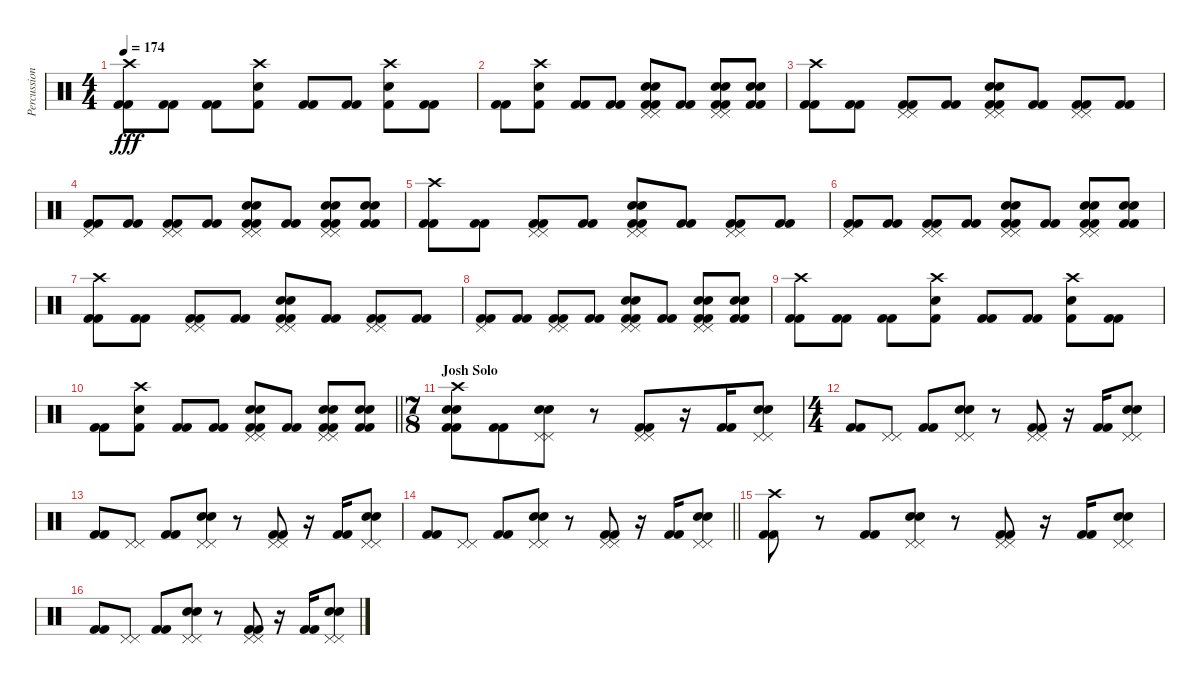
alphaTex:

\track ("Percussion" "Percussion") {instrument percussion}
\staff {score}
\articulation defaults
\ts (4 4)
\tempo 174
\clef neutral
\ks c
("Crash high (hit)" "Kick (hit) 2" "Kick (hit) 2").8{dy fff} ("Kick (hit) 2" "Kick (hit) 2").8 ("Kick (hit) 2" "Kick (hit) 2").8 ("Crash high (hit)" "Electric Snare (hit)" "Kick (hit) 2").8 ("Kick (hit) 2" "Kick (hit) 2").8 ("Kick (hit) 2" "Kick (hit) 2").8 ("Crash high (hit)" "Electric Snare (hit)" "Kick (hit) 2").8 ("Kick (hit) 2" "Kick (hit) 2").8 |
("Kick (hit) 2" "Kick (hit) 2").8 ("Crash high (hit)" "Electric Snare (hit)" "Kick (hit) 2").8 ("Kick (hit) 2" "Kick (hit) 2").8 ("Kick (hit) 2" "Kick (hit) 2").8 ("Pedal Hi-Hat (hit)" "Pedal Hi-Hat (hit)" "Electric Snare (hit)" "Electric Snare (hit)" "Kick (hit) 2" "Kick (hit) 2").8 ("Kick (hit) 2" "Kick (hit) 2").8 ("Pedal Hi-Hat (hit)" "Pedal Hi-Hat (hit)" "Electric Snare (hit)" "Electric Snare (hit)" "Kick (hit) 2" "Kick (hit) 2").8 ("Electric Snare (hit)" "Electric Snare (hit)" "Kick (hit) 2" "Kick (hit) 2").8 |
("Crash high (hit)" "Kick (hit) 2" "Kick (hit) 2").8 ("Kick (hit) 2" "Kick (hit) 2").8 ("Pedal Hi-Hat (hit)" "Pedal Hi-Hat (hit)" "Kick (hit) 2" "Kick (hit) 2").8 ("Kick (hit) 2" "Kick (hit) 2").8 ("Pedal Hi-Hat (hit)" "Pedal Hi-Hat (hit)" "Electric Snare (hit)" "Electric Snare (hit)" "Kick (hit) 2" "Kick (hit) 2").8 ("Kick (hit) 2" "Kick (hit) 2").8 ("Pedal Hi-Hat (hit)" "Pedal Hi-Hat (hit)" "Kick (hit) 2" "Kick (hit) 2").8 ("Kick (hit) 2" "Kick (hit) 2").8 |
("Pedal Hi-Hat (hit)" "Kick (hit) 2" "Kick (hit) 2").8 ("Kick (hit) 2" "Kick (hit) 2").8 ("Pedal Hi-Hat (hit)" "Pedal Hi-Hat (hit)" "Kick (hit) 2" "Kick (hit) 2").8 ("Kick (hit) 2" "Kick (hit) 2").8 ("Pedal Hi-Hat (hit)" "Pedal Hi-Hat (hit)" "Electric Snare (hit)" "Electric Snare (hit)" "Kick (hit) 2" "Kick (hit) 2").8 ("Kick (hit) 2" "Kick (hit) 2").8 ("Pedal Hi-Hat (hit)" "Pedal Hi-Hat (hit)" "Electric Snare (hit)" "Electric Snare (hit)" "Kick (hit) 2" "Kick (hit) 2").8 ("Electric Snare (hit)" "Electric Snare (hit)" "Kick (hit) 2" "Kick (hit) 2").8 |
("Crash high (hit)" "Kick (hit) 2" "Kick (hit) 2").8 ("Kick (hit) 2" "Kick (hit) 2").8 ("Pedal Hi-Hat (hit)" "Pedal Hi-Hat (hit)" "Kick (hit) 2" "Kick (hit) 2").8 ("Kick (hit) 2" "Kick (hit) 2").8 ("Pedal Hi-Hat (hit)" "Pedal Hi-Hat (hit)" "Electric Snare (hit)" "Electric Snare (hit)" "Kick (hit) 2" "Kick (hit) 2").8 ("Kick (hit) 2" "Kick (hit) 2").8 ("Pedal Hi-Hat (hit)" "Pedal Hi-Hat (hit)" "Kick (hit) 2" "Kick (hit) 2").8 ("Kick (hit) 2" "Kick (hit) 2").8 |
("Pedal Hi-Hat (hit)" "Kick (hit) 2" "Kick (hit) 2").8 ("Kick (hit) 2" "Kick (hit) 2").8 ("Pedal Hi-Hat (hit)" "Pedal Hi-Hat (hit)" "Kick (hit) 2" "Kick (hit) 2").8 ("Kick (hit) 2" "Kick (hit) 2").8 ("Pedal Hi-Hat (hit)" "Pedal Hi-Hat (hit)" "Electric Snare (hit)" "Electric Snare (hit)" "Kick (hit) 2" "Kick (hit) 2").8 ("Kick (hit) 2" "Kick (hit) 2").8 ("Pedal Hi-Hat (hit)" "Pedal Hi-Hat (hit)" "Electric Snare (hit)" "Electric Snare (hit)" "Kick (hit) 2" "Kick (hit) 2").8 ("Electric Snare (hit)" "Electric Snare (hit)" "Kick (hit) 2" "Kick (hit) 2").8 |
("Crash high (hit)" "Kick (hit) 2" "Kick (hit) 2").8 ("Kick (hit) 2" "Kick (hit) 2").8 ("Pedal Hi-Hat (hit)" "Pedal Hi-Hat (hit)" "Kick (hit) 2" "Kick (hit) 2").8 ("Kick (hit) 2" "Kick (hit) 2").8 ("Pedal Hi-Hat (hit)" "Pedal Hi-Hat (hit)" "Electric Snare (hit)" "Electric Snare (hit)" "Kick (hit) 2" "Kick (hit) 2").8 ("Kick (hit) 2" "Kick (hit) 2").8 ("Pedal Hi-Hat (hit)" "Pedal Hi-Hat (hit)" "Kick (hit) 2" "Kick (hit) 2").8 ("Kick (hit) 2" "Kick (hit) 2").8 |
("Pedal Hi-Hat (hit)" "Kick (hit) 2" "Kick (hit) 2").8 ("Kick (hit) 2" "Kick (hit) 2").8 ("Pedal Hi-Hat (hit)" "Pedal Hi-Hat (hit)" "Kick (hit) 2" "Kick (hit) 2").8 ("Kick (hit) 2" "Kick (hit) 2").8 ("Pedal Hi-Hat (hit)" "Pedal Hi-Hat (hit)" "Electric Snare (hit)" "Electric Snare (hit)" "Kick (hit) 2" "Kick (hit) 2").8 ("Kick (hit) 2" "Kick (hit) 2").8 ("Pedal Hi-Hat (hit)" "Pedal Hi-Hat (hit)" "Electric Snare (hit)" "Electric Snare (hit)" "Kick (hit) 2" "Kick (hit) 2").8 ("Electric Snare (hit)" "Electric Snare (hit)" "Kick (hit) 2" "Kick (hit) 2").8 |
("Crash high (hit)" "Kick (hit) 2" "Kick (hit) 2").8 ("Kick (hit) 2" "Kick (hit) 2").8 ("Kick (hit) 2" "Kick (hit) 2").8 ("Crash high (hit)" "Electric Snare (hit)" "Kick (hit) 2").8 ("Kick (hit) 2" "Kick (hit) 2").8 ("Kick (hit) 2" "Kick (hit) 2").8 ("Crash high (hit)" "Electric Snare (hit)" "Kick (hit) 2").8 ("Kick (hit) 2" "Kick (hit) 2").8 |
\barLineRight lightlight
("Kick (hit) 2" "Kick (hit) 2").8 ("Crash high (hit)" "Electric Snare (hit)" "Kick (hit) 2").8 ("Kick (hit) 2" "Kick (hit) 2").8 ("Kick (hit) 2" "Kick (hit) 2").8 ("Pedal Hi-Hat (hit)" "Pedal Hi-Hat (hit)" "Electric Snare (hit)" "Electric Snare (hit)" "Kick (hit) 2" "Kick (hit) 2").8 ("Kick (hit) 2" "Kick (hit) 2").8 ("Pedal Hi-Hat (hit)" "Pedal Hi-Hat (hit)" "Electric Snare (hit)" "Electric Snare (hit)" "Kick (hit) 2" "Kick (hit) 2").8 ("Electric Snare (hit)" "Electric Snare (hit)" "Kick (hit) 2" "Kick (hit) 2").8 |
\ts (7 8)
\section ("" "Josh Solo")
("Electric Snare (hit)" "Electric Snare (hit)" "Crash high (hit)" "Kick (hit) 2" "Kick (hit) 2").8 ("Kick (hit) 2" "Kick (hit) 2").8 ("Pedal Hi-Hat (hit)" "Pedal Hi-Hat (hit)" "Electric Snare (hit)" "Electric Snare (hit)").8 r.8 ("Pedal Hi-Hat (hit)" "Pedal Hi-Hat (hit)" "Kick (hit) 2" "Kick (hit) 2").8 r.16 ("Kick (hit) 2" "Kick (hit) 2").16 ("Pedal Hi-Hat (hit)" "Pedal Hi-Hat (hit)" "Electric Snare (hit)" "Electric Snare (hit)").8 |
\ts (4 4)
("Kick (hit) 2" "Kick (hit) 2").8 ("Pedal Hi-Hat (hit)" "Pedal Hi-Hat (hit)").8 ("Kick (hit) 2" "Kick (hit) 2").8 ("Pedal Hi-Hat (hit)" "Pedal Hi-Hat (hit)" "Electric Snare (hit)" "Electric Snare (hit)").8 r.8 ("Pedal Hi-Hat (hit)" "Pedal Hi-Hat (hit)" "Kick (hit) 2" "Kick (hit) 2").8 r.16 ("Kick (hit) 2" "Kick (hit) 2").16 ("Pedal Hi-Hat (hit)" "Pedal Hi-Hat (hit)" "Electric Snare (hit)" "Electric Snare (hit)").8 |
("Kick (hit) 2" "Kick (hit) 2").8 ("Pedal Hi-Hat (hit)" "Pedal Hi-Hat (hit)").8 ("Kick (hit) 2" "Kick (hit) 2").8 ("Pedal Hi-Hat (hit)" "Pedal Hi-Hat (hit)" "Electric Snare (hit)" "Electric Snare (hit)").8 r.8 ("Pedal Hi-Hat (hit)" "Pedal Hi-Hat (hit)" "Kick (hit) 2" "Kick (hit) 2").8 r.16 ("Kick (hit) 2" "Kick (hit) 2").16 ("Pedal Hi-Hat (hit)" "Pedal Hi-Hat (hit)" "Electric Snare (hit)" "Electric Snare (hit)").8 |
\barLineRight lightlight
("Kick (hit) 2" "Kick (hit) 2").8 ("Pedal Hi-Hat (hit)" "Pedal Hi-Hat (hit)").8 ("Kick (hit) 2" "Kick (hit) 2").8 ("Pedal Hi-Hat (hit)" "Pedal Hi-Hat (hit)" "Electric Snare (hit)" "Electric Snare (hit)").8 r.8 ("Pedal Hi-Hat (hit)" "Pedal Hi-Hat (hit)" "Kick (hit) 2" "Kick (hit) 2").8 r.16 ("Kick (hit) 2" "Kick (hit) 2").16 ("Pedal Hi-Hat (hit)" "Pedal Hi-Hat (hit)" "Electric Snare (hit)" "Electric Snare (hit)").8 |
("Crash high (hit)" "Kick (hit) 2" "Kick (hit) 2").8 r.8 ("Kick (hit) 2" "Kick (hit) 2").8 ("Pedal Hi-Hat (hit)" "Pedal Hi-Hat (hit)" "Electric Snare (hit)" "Electric Snare (hit)").8 r.8 ("Pedal Hi-Hat (hit)" "Pedal Hi-Hat (hit)" "Kick (hit) 2" "Kick (hit) 2").8 r.16 ("Kick (hit) 2" "Kick (hit) 2").16 ("Pedal Hi-Hat (hit)" "Pedal Hi-Hat (hit)" "Electric Snare (hit)" "Electric Snare (hit)").8 |
("Kick (hit) 2" "Kick (hit) 2").8 ("Pedal Hi-Hat (hit)" "Pedal Hi-Hat (hit)").8 ("Kick (hit) 2" "Kick (hit) 2").8 ("Pedal Hi-Hat (hit)" "Pedal Hi-Hat (hit)" "Electric Snare (hit)" "Electric Snare (hit)").8 r.8 ("Pedal Hi-Hat (hit)" "Pedal Hi-Hat (hit)" "Kick (hit) 2" "Kick (hit) 2").8 r.16 ("Kick (hit) 2" "Kick (hit) 2").16 ("Pedal Hi-Hat (hit)" "Pedal Hi-Hat (hit)" "Electric Snare (hit)" "Electric Snare (hit)").8
